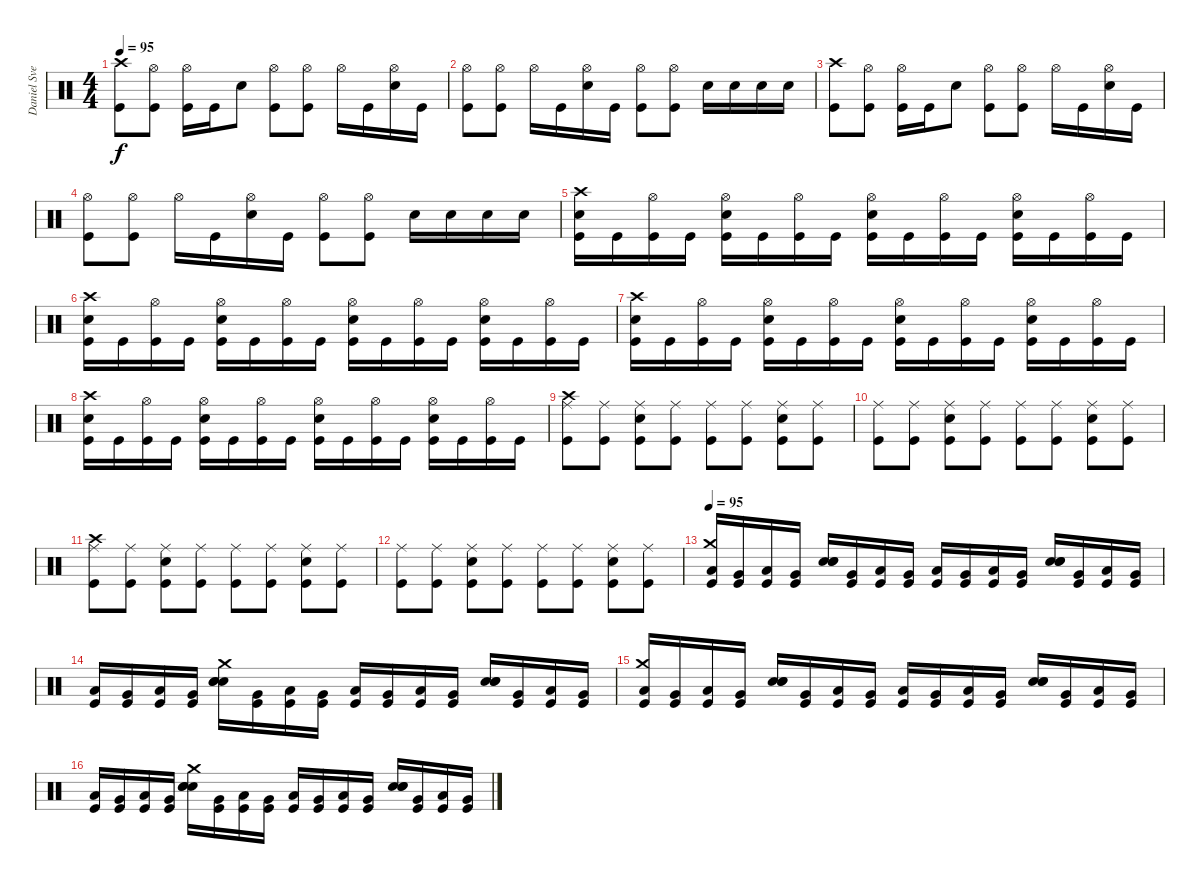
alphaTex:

\track ("Daniel Svensson" "Daniel Sve") {instrument percussion}
\staff {score}
\articulation defaults
\ts (4 4)
\tempo 95
\clef neutral
\ks c
("Crash high (hit)" "Kick (hit)").8{dy f} ("Hi-Hat (open)" "Kick (hit)").8 ("Hi-Hat (open)" "Kick (hit)").16 "Kick (hit)".16 "Electric Snare (hit)".8 ("Hi-Hat (open)" "Kick (hit)").8 ("Hi-Hat (open)" "Kick (hit)").8 "Hi-Hat (open)".16 "Kick (hit)".16 ("Hi-Hat (open)" "Electric Snare (hit)").16 "Kick (hit)".16 |
("Hi-Hat (open)" "Kick (hit)").8 ("Hi-Hat (open)" "Kick (hit)").8 "Hi-Hat (open)".16 "Kick (hit)".16 ("Hi-Hat (open)" "Electric Snare (hit)").16 "Kick (hit)".16 ("Hi-Hat (open)" "Kick (hit)").8 ("Hi-Hat (open)" "Kick (hit)").8 "Electric Snare (hit)".16 "Electric Snare (hit)".16 "Electric Snare (hit)".16 "Electric Snare (hit)".16 |
("Crash high (hit)" "Kick (hit)").8 ("Hi-Hat (open)" "Kick (hit)").8 ("Hi-Hat (open)" "Kick (hit)").16 "Kick (hit)".16 "Electric Snare (hit)".8 ("Hi-Hat (open)" "Kick (hit)").8 ("Hi-Hat (open)" "Kick (hit)").8 "Hi-Hat (open)".16 "Kick (hit)".16 ("Hi-Hat (open)" "Electric Snare (hit)").16 "Kick (hit)".16 |
("Hi-Hat (open)" "Kick (hit)").8 ("Hi-Hat (open)" "Kick (hit)").8 "Hi-Hat (open)".16 "Kick (hit)".16 ("Hi-Hat (open)" "Electric Snare (hit)").16 "Kick (hit)".16 ("Hi-Hat (open)" "Kick (hit)").8 ("Hi-Hat (open)" "Kick (hit)").8 "Electric Snare (hit)".16 "Electric Snare (hit)".16 "Electric Snare (hit)".16 "Electric Snare (hit)".16 |
("Crash high (hit)" "Electric Snare (hit)" "Kick (hit)").16 "Kick (hit)".16 ("Hi-Hat (open)" "Kick (hit)").16 "Kick (hit)".16 ("Hi-Hat (open)" "Electric Snare (hit)" "Kick (hit)").16 "Kick (hit)".16 ("Hi-Hat (open)" "Kick (hit)").16 "Kick (hit)".16 ("Hi-Hat (open)" "Electric Snare (hit)" "Kick (hit)").16 "Kick (hit)".16 ("Hi-Hat (open)" "Kick (hit)").16 "Kick (hit)".16 ("Hi-Hat (open)" "Electric Snare (hit)" "Kick (hit)").16 "Kick (hit)".16 ("Hi-Hat (open)" "Kick (hit)").16 "Kick (hit)".16 |
("Crash high (hit)" "Electric Snare (hit)" "Kick (hit)").16 "Kick (hit)".16 ("Hi-Hat (open)" "Kick (hit)").16 "Kick (hit)".16 ("Hi-Hat (open)" "Electric Snare (hit)" "Kick (hit)").16 "Kick (hit)".16 ("Hi-Hat (open)" "Kick (hit)").16 "Kick (hit)".16 ("Hi-Hat (open)" "Electric Snare (hit)" "Kick (hit)").16 "Kick (hit)".16 ("Hi-Hat (open)" "Kick (hit)").16 "Kick (hit)".16 ("Hi-Hat (open)" "Electric Snare (hit)" "Kick (hit)").16 "Kick (hit)".16 ("Hi-Hat (open)" "Kick (hit)").16 "Kick (hit)".16 |
("Crash high (hit)" "Electric Snare (hit)" "Kick (hit)").16 "Kick (hit)".16 ("Hi-Hat (open)" "Kick (hit)").16 "Kick (hit)".16 ("Hi-Hat (open)" "Electric Snare (hit)" "Kick (hit)").16 "Kick (hit)".16 ("Hi-Hat (open)" "Kick (hit)").16 "Kick (hit)".16 ("Hi-Hat (open)" "Electric Snare (hit)" "Kick (hit)").16 "Kick (hit)".16 ("Hi-Hat (open)" "Kick (hit)").16 "Kick (hit)".16 ("Hi-Hat (open)" "Electric Snare (hit)" "Kick (hit)").16 "Kick (hit)".16 ("Hi-Hat (open)" "Kick (hit)").16 "Kick (hit)".16 |
("Crash high (hit)" "Electric Snare (hit)" "Kick (hit)").16 "Kick (hit)".16 ("Hi-Hat (open)" "Kick (hit)").16 "Kick (hit)".16 ("Hi-Hat (open)" "Electric Snare (hit)" "Kick (hit)").16 "Kick (hit)".16 ("Hi-Hat (open)" "Kick (hit)").16 "Kick (hit)".16 ("Hi-Hat (open)" "Electric Snare (hit)" "Kick (hit)").16 "Kick (hit)".16 ("Hi-Hat (open)" "Kick (hit)").16 "Kick (hit)".16 ("Hi-Hat (open)" "Electric Snare (hit)" "Kick (hit)").16 "Kick (hit)".16 ("Hi-Hat (open)" "Kick (hit)").16 "Kick (hit)".16 |
("Ride (middle)" "Crash high (hit)" "Kick (hit)").8 ("Ride (middle)" "Kick (hit)").8 ("Ride (middle)" "Electric Snare (hit)" "Kick (hit)").8 ("Ride (middle)" "Kick (hit)").8 ("Ride (middle)" "Kick (hit)").8 ("Ride (middle)" "Kick (hit)").8 ("Ride (middle)" "Electric Snare (hit)" "Kick (hit)").8 ("Ride (middle)" "Kick (hit)").8 |
("Ride (middle)" "Kick (hit)").8 ("Ride (middle)" "Kick (hit)").8 ("Ride (middle)" "Electric Snare (hit)" "Kick (hit)").8 ("Ride (middle)" "Kick (hit)").8 ("Ride (middle)" "Kick (hit)").8 ("Ride (middle)" "Kick (hit)").8 ("Ride (middle)" "Electric Snare (hit)" "Kick (hit)").8 ("Ride (middle)" "Kick (hit)").8 |
("Ride (middle)" "Crash high (hit)" "Kick (hit)").8 ("Ride (middle)" "Kick (hit)").8 ("Ride (middle)" "Electric Snare (hit)" "Kick (hit)").8 ("Ride (middle)" "Kick (hit)").8 ("Ride (middle)" "Kick (hit)").8 ("Ride (middle)" "Kick (hit)").8 ("Ride (middle)" "Electric Snare (hit)" "Kick (hit)").8 ("Ride (middle)" "Kick (hit)").8 |
("Ride (middle)" "Kick (hit)").8 ("Ride (middle)" "Kick (hit)").8 ("Ride (middle)" "Electric Snare (hit)" "Kick (hit)").8 ("Ride (middle)" "Kick (hit)").8 ("Ride (middle)" "Kick (hit)").8 ("Ride (middle)" "Kick (hit)").8 ("Ride (middle)" "Electric Snare (hit)" "Kick (hit)").8 ("Ride (middle)" "Kick (hit)").8 |
\tempo 95
("Crash medium (hit)" "Low Floor Tom (hit)" "Kick (hit)").16 ("Very Low Tom (hit)" "Kick (hit)").16 ("Low Floor Tom (hit)" "Kick (hit)").16 ("Very Low Tom (hit)" "Kick (hit)").16 ("Snare (hit) 2" "Snare (hit) 2" "Snare (hit) 2").16 ("Very Low Tom (hit)" "Kick (hit)").16 ("Low Floor Tom (hit)" "Kick (hit)").16 ("Very Low Tom (hit)" "Kick (hit)").16 ("Low Floor Tom (hit)" "Kick (hit)").16 ("Very Low Tom (hit)" "Kick (hit)").16 ("Low Floor Tom (hit)" "Kick (hit)").16 ("Very Low Tom (hit)" "Kick (hit)").16 ("Snare (hit) 2" "Snare (hit) 2" "Snare (hit) 2").16 ("Very Low Tom (hit)" "Kick (hit)").16 ("Low Floor Tom (hit)" "Kick (hit)").16 ("Very Low Tom (hit)" "Kick (hit)").16 |
("Low Floor Tom (hit)" "Kick (hit)").16 ("Very Low Tom (hit)" "Kick (hit)").16 ("Low Floor Tom (hit)" "Kick (hit)").16 ("Very Low Tom (hit)" "Kick (hit)").16 ("Crash medium (hit)" "Snare (hit) 2" "Snare (hit) 2" "Snare (hit) 2").16 ("Very Low Tom (hit)" "Kick (hit)").16 ("Low Floor Tom (hit)" "Kick (hit)").16 ("Very Low Tom (hit)" "Kick (hit)").16 ("Low Floor Tom (hit)" "Kick (hit)").16 ("Very Low Tom (hit)" "Kick (hit)").16 ("Low Floor Tom (hit)" "Kick (hit)").16 ("Very Low Tom (hit)" "Kick (hit)").16 ("Snare (hit) 2" "Snare (hit) 2" "Snare (hit) 2").16 ("Very Low Tom (hit)" "Kick (hit)").16 ("Low Floor Tom (hit)" "Kick (hit)").16 ("Very Low Tom (hit)" "Kick (hit)").16 |
("Crash medium (hit)" "Low Floor Tom (hit)" "Kick (hit)").16 ("Very Low Tom (hit)" "Kick (hit)").16 ("Low Floor Tom (hit)" "Kick (hit)").16 ("Very Low Tom (hit)" "Kick (hit)").16 ("Snare (hit) 2" "Snare (hit) 2" "Snare (hit) 2").16 ("Very Low Tom (hit)" "Kick (hit)").16 ("Low Floor Tom (hit)" "Kick (hit)").16 ("Very Low Tom (hit)" "Kick (hit)").16 ("Low Floor Tom (hit)" "Kick (hit)").16 ("Very Low Tom (hit)" "Kick (hit)").16 ("Low Floor Tom (hit)" "Kick (hit)").16 ("Very Low Tom (hit)" "Kick (hit)").16 ("Snare (hit) 2" "Snare (hit) 2" "Snare (hit) 2").16 ("Very Low Tom (hit)" "Kick (hit)").16 ("Low Floor Tom (hit)" "Kick (hit)").16 ("Very Low Tom (hit)" "Kick (hit)").16 |
("Low Floor Tom (hit)" "Kick (hit)").16 ("Very Low Tom (hit)" "Kick (hit)").16 ("Low Floor Tom (hit)" "Kick (hit)").16 ("Very Low Tom (hit)" "Kick (hit)").16 ("Crash medium (hit)" "Snare (hit) 2" "Snare (hit) 2" "Snare (hit) 2").16 ("Very Low Tom (hit)" "Kick (hit)").16 ("Low Floor Tom (hit)" "Kick (hit)").16 ("Very Low Tom (hit)" "Kick (hit)").16 ("Low Floor Tom (hit)" "Kick (hit)").16 ("Very Low Tom (hit)" "Kick (hit)").16 ("Low Floor Tom (hit)" "Kick (hit)").16 ("Very Low Tom (hit)" "Kick (hit)").16 ("Snare (hit) 2" "Snare (hit) 2" "Snare (hit) 2").16 ("Very Low Tom (hit)" "Kick (hit)").16 ("Low Floor Tom (hit)" "Kick (hit)").16 ("Very Low Tom (hit)" "Kick (hit)").16
